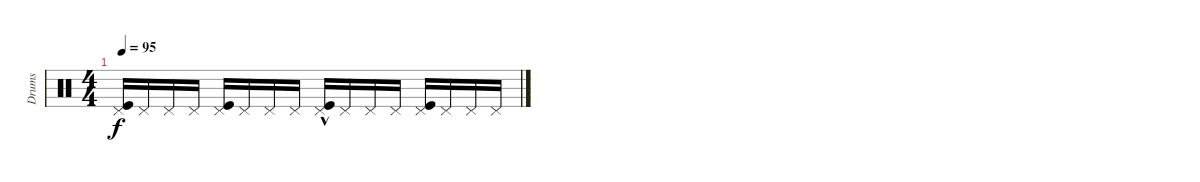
\track ("Drums" "Drums") {instrument percussion}
\staff {score}
\articulation defaults
\ts (4 4)
\tempo 95
\clef neutral
\ks c
("Kick (hit)" "Pedal Hi-Hat (hit)").16{dy f volume 0} "Pedal Hi-Hat (hit)".16 "Pedal Hi-Hat (hit)".16 "Pedal Hi-Hat (hit)".16 ("Kick (hit)" "Pedal Hi-Hat (hit)").16 "Pedal Hi-Hat (hit)".16 "Pedal Hi-Hat (hit)".16 "Pedal Hi-Hat (hit)".16 ("Kick (hit)" "Pedal Hi-Hat (hit)"{hac}).16 "Pedal Hi-Hat (hit)".16 "Pedal Hi-Hat (hit)".16 "Pedal Hi-Hat (hit)".16 ("Kick (hit)" "Pedal Hi-Hat (hit)").16 "Pedal Hi-Hat (hit)".16 "Pedal Hi-Hat (hit)".16 "Pedal Hi-Hat (hit)".16
